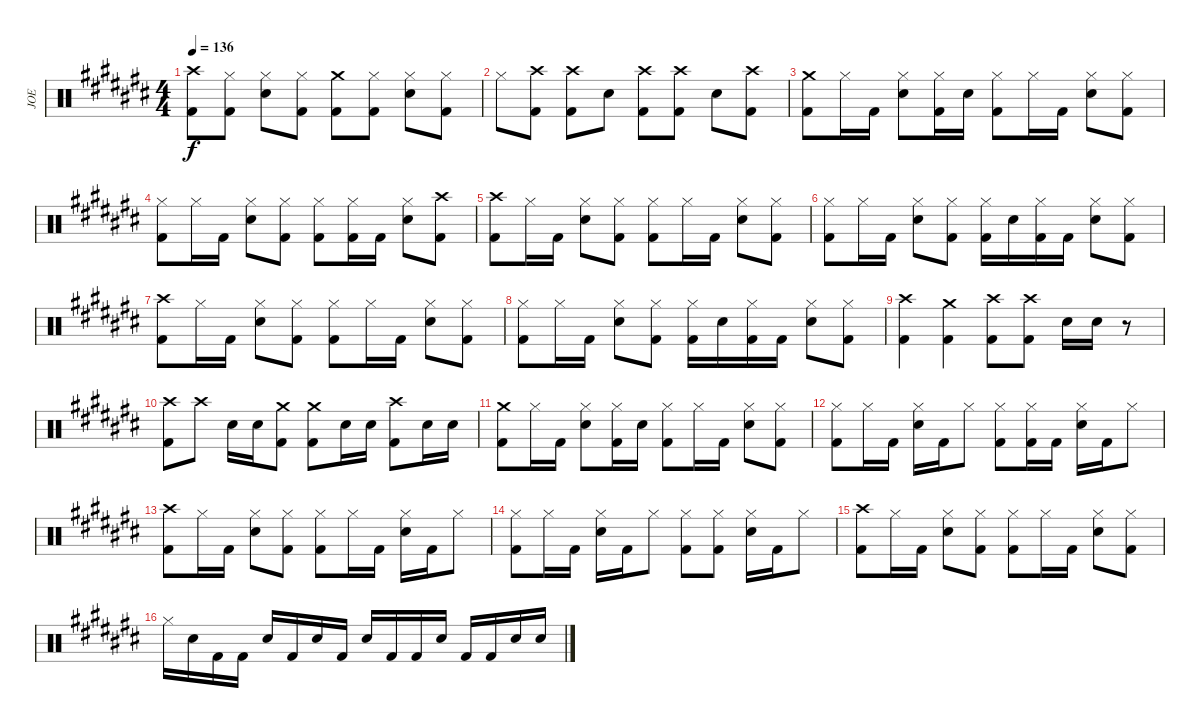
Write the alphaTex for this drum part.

\track ("JOE" "JOE") {instrument percussion}
\staff {score}
\articulation defaults
\ts (4 4)
\tempo 136
\clef neutral
\ks c#
("Crash high (hit)" "Kick (hit) 2").8{dy f} ("Hi-Hat (closed)" "Kick (hit) 2").8 ("Hi-Hat (closed)" "Snare (hit) 2").8 ("Hi-Hat (closed)" "Kick (hit) 2").8 ("Crash medium (hit)" "Kick (hit) 2").8 ("Hi-Hat (closed)" "Kick (hit) 2").8 ("Hi-Hat (closed)" "Snare (hit) 2").8 ("Hi-Hat (closed)" "Kick (hit) 2").8 |
"Hi-Hat (closed)".8 ("Crash high (hit)" "Kick (hit) 2").8 ("Crash high (hit)" "Kick (hit) 2").8 "Snare (hit) 2".8 ("Crash high (hit)" "Kick (hit) 2").8 ("Crash high (hit)" "Kick (hit) 2").8 "Snare (hit) 2".8 ("Crash high (hit)" "Kick (hit) 2").8 |
("Crash medium (hit)" "Kick (hit) 2").8 "Hi-Hat (closed)".16 "Kick (hit) 2".16 ("Hi-Hat (closed)" "Snare (hit) 2").8 ("Hi-Hat (closed)" "Kick (hit) 2").16 "Snare (hit) 2".16 ("Hi-Hat (closed)" "Kick (hit) 2").8 "Hi-Hat (closed)".16 "Kick (hit) 2".16 ("Hi-Hat (closed)" "Snare (hit) 2").8 ("Hi-Hat (closed)" "Kick (hit) 2").8 |
("Hi-Hat (closed)" "Kick (hit) 2").8 "Hi-Hat (closed)".16 "Kick (hit) 2".16 ("Hi-Hat (closed)" "Snare (hit) 2").8 ("Hi-Hat (closed)" "Kick (hit) 2").8 ("Hi-Hat (closed)" "Kick (hit) 2").8 ("Hi-Hat (closed)" "Kick (hit) 2").16 "Kick (hit) 2".16 ("Hi-Hat (closed)" "Snare (hit) 2").8 ("Crash high (hit)" "Kick (hit) 2").8 |
("Crash high (hit)" "Kick (hit) 2").8 "Hi-Hat (closed)".16 "Kick (hit) 2".16 ("Hi-Hat (closed)" "Snare (hit) 2").8 ("Hi-Hat (closed)" "Kick (hit) 2").8 ("Hi-Hat (closed)" "Kick (hit) 2").8 "Hi-Hat (closed)".16 "Kick (hit) 2".16 ("Hi-Hat (closed)" "Snare (hit) 2").8 ("Hi-Hat (closed)" "Kick (hit) 2").8 |
("Hi-Hat (closed)" "Kick (hit) 2").8 "Hi-Hat (closed)".16 "Kick (hit) 2".16 ("Hi-Hat (closed)" "Snare (hit) 2").8 ("Hi-Hat (closed)" "Kick (hit) 2").8 ("Hi-Hat (closed)" "Kick (hit) 2").16 "Snare (hit) 2".16 ("Hi-Hat (closed)" "Kick (hit) 2").16 "Kick (hit) 2".16 ("Hi-Hat (closed)" "Snare (hit) 2").8 ("Hi-Hat (closed)" "Kick (hit) 2").8 |
("Crash high (hit)" "Kick (hit) 2").8 "Hi-Hat (closed)".16 "Kick (hit) 2".16 ("Hi-Hat (closed)" "Snare (hit) 2").8 ("Hi-Hat (closed)" "Kick (hit) 2").8 ("Hi-Hat (closed)" "Kick (hit) 2").8 "Hi-Hat (closed)".16 "Kick (hit) 2".16 ("Hi-Hat (closed)" "Snare (hit) 2").8 ("Hi-Hat (closed)" "Kick (hit) 2").8 |
("Hi-Hat (closed)" "Kick (hit) 2").8 "Hi-Hat (closed)".16 "Kick (hit) 2".16 ("Hi-Hat (closed)" "Snare (hit) 2").8 ("Hi-Hat (closed)" "Kick (hit) 2").8 ("Hi-Hat (closed)" "Kick (hit) 2").16 "Snare (hit) 2".16 ("Hi-Hat (closed)" "Kick (hit) 2").16 "Kick (hit) 2".16 ("Hi-Hat (closed)" "Snare (hit) 2").8 ("Hi-Hat (closed)" "Kick (hit) 2").8 |
("Crash high (hit)" "Kick (hit) 2").4 ("Crash medium (hit)" "Kick (hit) 2").4 ("Crash high (hit)" "Kick (hit) 2").8 ("Crash high (hit)" "Kick (hit) 2").8 "Snare (hit) 2".16 "Snare (hit) 2".16 r.8 |
("Crash high (hit)" "Kick (hit) 2").8 "Crash high (hit)".8 "Snare (hit) 2".16 "Snare (hit) 2".16 ("Crash medium (hit)" "Kick (hit) 2").8 ("Crash medium (hit)" "Kick (hit) 2").8 "Snare (hit) 2".16 "Snare (hit) 2".16 ("Crash high (hit)" "Kick (hit) 2").8 "Snare (hit) 2".16 "Snare (hit) 2".16 |
("Crash medium (hit)" "Kick (hit) 2").8 "Hi-Hat (closed)".16 "Kick (hit) 2".16 ("Hi-Hat (closed)" "Snare (hit) 2").8 ("Hi-Hat (closed)" "Kick (hit) 2").16 "Snare (hit) 2".16 ("Hi-Hat (closed)" "Kick (hit) 2").8 "Hi-Hat (closed)".16 "Kick (hit) 2".16 ("Hi-Hat (closed)" "Snare (hit) 2").8 ("Hi-Hat (closed)" "Kick (hit) 2").8 |
("Hi-Hat (closed)" "Kick (hit) 2").8 "Hi-Hat (closed)".16 "Kick (hit) 2".16 ("Hi-Hat (closed)" "Snare (hit) 2").16 "Kick (hit) 2".16 "Hi-Hat (closed)".8 ("Hi-Hat (closed)" "Kick (hit) 2").8 ("Hi-Hat (closed)" "Kick (hit) 2").16 "Kick (hit) 2".16 ("Hi-Hat (closed)" "Snare (hit) 2").16 "Kick (hit) 2".16 "Hi-Hat (closed)".8 |
("Crash high (hit)" "Kick (hit) 2").8 "Hi-Hat (closed)".16 "Kick (hit) 2".16 ("Hi-Hat (closed)" "Snare (hit) 2").8 ("Hi-Hat (closed)" "Kick (hit) 2").8 ("Hi-Hat (closed)" "Kick (hit) 2").8 "Hi-Hat (closed)".16 "Kick (hit) 2".16 ("Hi-Hat (closed)" "Snare (hit) 2").16 "Kick (hit) 2".16 "Hi-Hat (closed)".8 |
("Hi-Hat (closed)" "Kick (hit) 2").8 "Hi-Hat (closed)".16 "Kick (hit) 2".16 ("Hi-Hat (closed)" "Snare (hit) 2").16 "Kick (hit) 2".16 "Hi-Hat (closed)".8 ("Hi-Hat (closed)" "Kick (hit) 2").8 ("Hi-Hat (closed)" "Kick (hit) 2").8 ("Hi-Hat (closed)" "Snare (hit) 2").16 "Kick (hit) 2".16 "Hi-Hat (closed)".8 |
("Crash high (hit)" "Kick (hit) 2").8 "Hi-Hat (closed)".16 "Kick (hit) 2".16 ("Hi-Hat (closed)" "Snare (hit) 2").8 ("Hi-Hat (closed)" "Kick (hit) 2").8 ("Hi-Hat (closed)" "Kick (hit) 2").8 "Hi-Hat (closed)".16 "Kick (hit) 2".16 ("Hi-Hat (closed)" "Snare (hit) 2").8 ("Hi-Hat (closed)" "Kick (hit) 2").8 |
"Hi-Hat (closed)".16 "Snare (hit) 2".16 "Kick (hit) 2".16 "Kick (hit) 2".16 "Snare (hit) 2".16 "Kick (hit) 2".16 "Snare (hit) 2".16 "Kick (hit) 2".16 "Snare (hit) 2".16 "Kick (hit) 2".16 "Kick (hit) 2".16 "Snare (hit) 2".16 "Kick (hit) 2".16 "Kick (hit) 2".16 "Snare (hit) 2".16 "Snare (hit) 2".16
